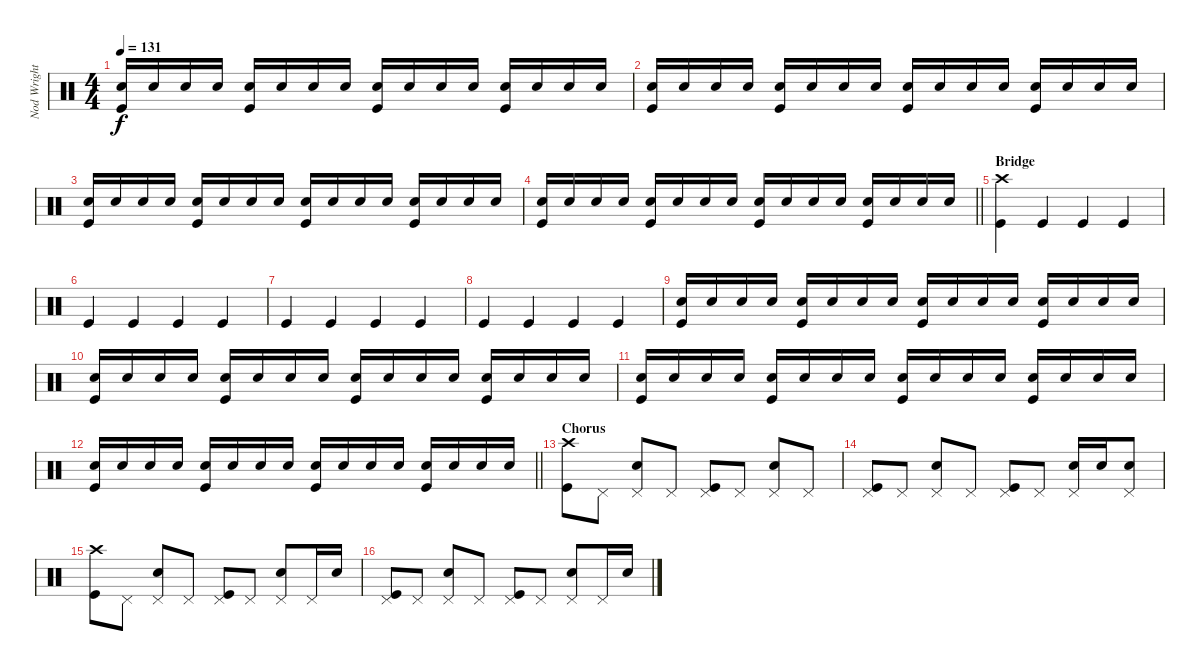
\track ("Nod Wright" "Nod Wright") {instrument percussion}
\staff {score}
\articulation defaults
\ts (4 4)
\tempo 131
\clef neutral
\ks c
("Snare (hit) 2" "Kick (hit)").16{dy f volume 13} "Snare (hit) 2".16 "Snare (hit) 2".16 "Snare (hit) 2".16 ("Snare (hit) 2" "Kick (hit)").16 "Snare (hit) 2".16 "Snare (hit) 2".16 "Snare (hit) 2".16 ("Snare (hit) 2" "Kick (hit)").16 "Snare (hit) 2".16 "Snare (hit) 2".16 "Snare (hit) 2".16 ("Snare (hit) 2" "Kick (hit)").16 "Snare (hit) 2".16 "Snare (hit) 2".16 "Snare (hit) 2".16 |
("Snare (hit) 2" "Kick (hit)").16 "Snare (hit) 2".16 "Snare (hit) 2".16 "Snare (hit) 2".16 ("Snare (hit) 2" "Kick (hit)").16 "Snare (hit) 2".16 "Snare (hit) 2".16 "Snare (hit) 2".16 ("Snare (hit) 2" "Kick (hit)").16 "Snare (hit) 2".16 "Snare (hit) 2".16 "Snare (hit) 2".16 ("Snare (hit) 2" "Kick (hit)").16 "Snare (hit) 2".16 "Snare (hit) 2".16 "Snare (hit) 2".16 |
("Snare (hit) 2" "Kick (hit)").16 "Snare (hit) 2".16 "Snare (hit) 2".16 "Snare (hit) 2".16 ("Snare (hit) 2" "Kick (hit)").16 "Snare (hit) 2".16 "Snare (hit) 2".16 "Snare (hit) 2".16 ("Snare (hit) 2" "Kick (hit)").16 "Snare (hit) 2".16 "Snare (hit) 2".16 "Snare (hit) 2".16 ("Snare (hit) 2" "Kick (hit)").16 "Snare (hit) 2".16 "Snare (hit) 2".16 "Snare (hit) 2".16 |
\barLineRight lightlight
("Snare (hit) 2" "Kick (hit)").16 "Snare (hit) 2".16 "Snare (hit) 2".16 "Snare (hit) 2".16 ("Snare (hit) 2" "Kick (hit)").16 "Snare (hit) 2".16 "Snare (hit) 2".16 "Snare (hit) 2".16 ("Snare (hit) 2" "Kick (hit)").16 "Snare (hit) 2".16 "Snare (hit) 2".16 "Snare (hit) 2".16 ("Snare (hit) 2" "Kick (hit)").16 "Snare (hit) 2".16 "Snare (hit) 2".16 "Snare (hit) 2".16 |
\section ("" "Bridge")
("Crash high (hit)" "Kick (hit)").4 "Kick (hit)".4 "Kick (hit)".4 "Kick (hit)".4 |
"Kick (hit)".4 "Kick (hit)".4 "Kick (hit)".4 "Kick (hit)".4 |
"Kick (hit)".4 "Kick (hit)".4 "Kick (hit)".4 "Kick (hit)".4 |
"Kick (hit)".4 "Kick (hit)".4 "Kick (hit)".4 "Kick (hit)".4{volume 2} |
("Snare (hit) 2" "Kick (hit)").16{volume 13} "Snare (hit) 2".16 "Snare (hit) 2".16 "Snare (hit) 2".16 ("Snare (hit) 2" "Kick (hit)").16 "Snare (hit) 2".16 "Snare (hit) 2".16 "Snare (hit) 2".16 ("Snare (hit) 2" "Kick (hit)").16 "Snare (hit) 2".16 "Snare (hit) 2".16 "Snare (hit) 2".16 ("Snare (hit) 2" "Kick (hit)").16 "Snare (hit) 2".16 "Snare (hit) 2".16 "Snare (hit) 2".16 |
("Snare (hit) 2" "Kick (hit)").16 "Snare (hit) 2".16 "Snare (hit) 2".16 "Snare (hit) 2".16 ("Snare (hit) 2" "Kick (hit)").16 "Snare (hit) 2".16 "Snare (hit) 2".16 "Snare (hit) 2".16 ("Snare (hit) 2" "Kick (hit)").16 "Snare (hit) 2".16 "Snare (hit) 2".16 "Snare (hit) 2".16 ("Snare (hit) 2" "Kick (hit)").16 "Snare (hit) 2".16 "Snare (hit) 2".16 "Snare (hit) 2".16 |
("Snare (hit) 2" "Kick (hit)").16 "Snare (hit) 2".16 "Snare (hit) 2".16 "Snare (hit) 2".16 ("Snare (hit) 2" "Kick (hit)").16 "Snare (hit) 2".16 "Snare (hit) 2".16 "Snare (hit) 2".16 ("Snare (hit) 2" "Kick (hit)").16 "Snare (hit) 2".16 "Snare (hit) 2".16 "Snare (hit) 2".16 ("Snare (hit) 2" "Kick (hit)").16 "Snare (hit) 2".16 "Snare (hit) 2".16 "Snare (hit) 2".16 |
\barLineRight lightlight
("Snare (hit) 2" "Kick (hit)").16 "Snare (hit) 2".16 "Snare (hit) 2".16 "Snare (hit) 2".16 ("Snare (hit) 2" "Kick (hit)").16 "Snare (hit) 2".16 "Snare (hit) 2".16 "Snare (hit) 2".16 ("Snare (hit) 2" "Kick (hit)").16 "Snare (hit) 2".16 "Snare (hit) 2".16 "Snare (hit) 2".16 ("Snare (hit) 2" "Kick (hit)").16 "Snare (hit) 2".16 "Snare (hit) 2".16 "Snare (hit) 2".16 |
\section ("" "Chorus")
("Crash high (hit)" "Kick (hit)").8 "Pedal Hi-Hat (hit)".8 ("Pedal Hi-Hat (hit)" "Snare (hit) 2").8 "Pedal Hi-Hat (hit)".8 ("Pedal Hi-Hat (hit)" "Kick (hit)").8 "Pedal Hi-Hat (hit)".8 ("Pedal Hi-Hat (hit)" "Snare (hit) 2").8 "Pedal Hi-Hat (hit)".8 |
("Pedal Hi-Hat (hit)" "Kick (hit)").8 "Pedal Hi-Hat (hit)".8 ("Pedal Hi-Hat (hit)" "Snare (hit) 2").8 "Pedal Hi-Hat (hit)".8 ("Pedal Hi-Hat (hit)" "Kick (hit)").8 "Pedal Hi-Hat (hit)".8 ("Pedal Hi-Hat (hit)" "Snare (hit) 2").16 "Snare (hit) 2".16 ("Pedal Hi-Hat (hit)" "Snare (hit) 2").8 |
("Crash high (hit)" "Kick (hit)").8 "Pedal Hi-Hat (hit)".8 ("Pedal Hi-Hat (hit)" "Snare (hit) 2").8 "Pedal Hi-Hat (hit)".8 ("Pedal Hi-Hat (hit)" "Kick (hit)").8 "Pedal Hi-Hat (hit)".8 ("Pedal Hi-Hat (hit)" "Snare (hit) 2").8 "Pedal Hi-Hat (hit)".16 "Snare (hit) 2".16 |
("Pedal Hi-Hat (hit)" "Kick (hit)").8 "Pedal Hi-Hat (hit)".8 ("Pedal Hi-Hat (hit)" "Snare (hit) 2").8 "Pedal Hi-Hat (hit)".8 ("Pedal Hi-Hat (hit)" "Kick (hit)").8 "Pedal Hi-Hat (hit)".8 ("Pedal Hi-Hat (hit)" "Snare (hit) 2").8 "Pedal Hi-Hat (hit)".16 "Snare (hit) 2".16
